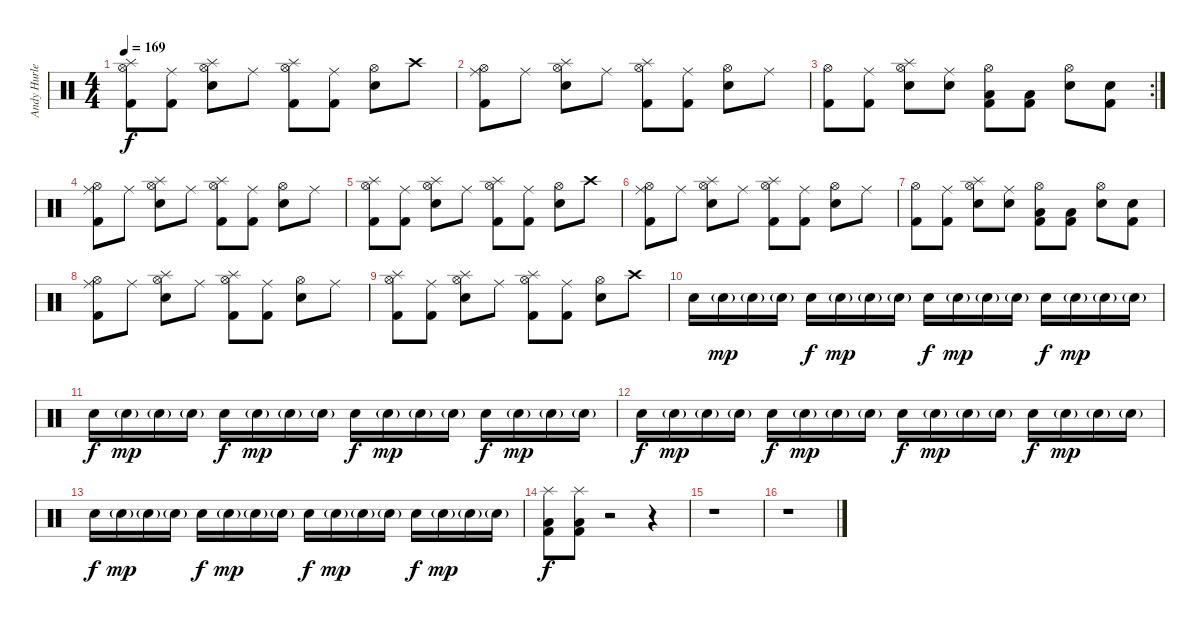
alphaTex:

\track ("Andy Hurley" "Andy Hurle") {instrument percussion}
\staff {score}
\articulation defaults
\ts (4 4)
\tempo 169
\clef neutral
\ks c
("Hi-Hat (open)" "Splash (hit)" "Kick (hit) 2").8{dy f} ("Ride (middle)" "Kick (hit) 2").8 ("Hi-Hat (open)" "Splash (hit)" "Electric Snare (hit)").8 "Ride (middle)".8 ("Hi-Hat (open)" "Splash (hit)" "Kick (hit) 2").8 ("Ride (middle)" "Kick (hit) 2").8 ("Hi-Hat (open)" "Electric Snare (hit)").8 "Crash high (hit)".8 |
("Hi-Hat (open)" "Ride (middle)" "Kick (hit) 2").8 "Ride (middle)".8 ("Hi-Hat (open)" "Splash (hit)" "Electric Snare (hit)").8 "Ride (middle)".8 ("Hi-Hat (open)" "Splash (hit)" "Kick (hit) 2").8 ("Ride (middle)" "Kick (hit) 2").8 ("Hi-Hat (open)" "Electric Snare (hit)").8 "Ride (middle)".8 |
\rc 2
("Hi-Hat (open)" "Kick (hit) 2").8 ("Ride (middle)" "Kick (hit) 2").8 ("Hi-Hat (open)" "Splash (hit)" "Electric Snare (hit)").8 ("Ride (middle)" "Electric Snare (hit)").8 ("Hi-Hat (open)" "Kick (hit) 2" "Low Floor Tom (hit)").8 ("Kick (hit) 2" "Low Floor Tom (hit)").8 ("Hi-Hat (open)" "Snare (hit) 2").8 ("Electric Snare (hit)" "Kick (hit) 2").8 |
("Hi-Hat (open)" "Ride (middle)" "Kick (hit) 2").8 "Ride (middle)".8 ("Hi-Hat (open)" "Splash (hit)" "Electric Snare (hit)").8 "Ride (middle)".8 ("Hi-Hat (open)" "Splash (hit)" "Kick (hit) 2").8 ("Ride (middle)" "Kick (hit) 2").8 ("Hi-Hat (open)" "Electric Snare (hit)").8 "Ride (middle)".8 |
("Hi-Hat (open)" "Splash (hit)" "Kick (hit) 2").8 ("Ride (middle)" "Kick (hit) 2").8 ("Hi-Hat (open)" "Splash (hit)" "Electric Snare (hit)").8 "Ride (middle)".8 ("Hi-Hat (open)" "Splash (hit)" "Kick (hit) 2").8 ("Ride (middle)" "Kick (hit) 2").8 ("Hi-Hat (open)" "Electric Snare (hit)").8 "Crash high (hit)".8 |
("Hi-Hat (open)" "Ride (middle)" "Kick (hit) 2").8 "Ride (middle)".8 ("Hi-Hat (open)" "Splash (hit)" "Electric Snare (hit)").8 "Ride (middle)".8 ("Hi-Hat (open)" "Splash (hit)" "Kick (hit) 2").8 ("Ride (middle)" "Kick (hit) 2").8 ("Hi-Hat (open)" "Electric Snare (hit)").8 "Ride (middle)".8 |
("Hi-Hat (open)" "Kick (hit) 2").8 ("Ride (middle)" "Kick (hit) 2").8 ("Hi-Hat (open)" "Splash (hit)" "Electric Snare (hit)").8 ("Ride (middle)" "Electric Snare (hit)").8 ("Hi-Hat (open)" "Kick (hit) 2" "Low Floor Tom (hit)").8 ("Kick (hit) 2" "Low Floor Tom (hit)").8 ("Hi-Hat (open)" "Snare (hit) 2").8 ("Electric Snare (hit)" "Kick (hit) 2").8 |
("Hi-Hat (open)" "Ride (middle)" "Kick (hit) 2").8 "Ride (middle)".8 ("Hi-Hat (open)" "Splash (hit)" "Electric Snare (hit)").8 "Ride (middle)".8 ("Hi-Hat (open)" "Splash (hit)" "Kick (hit) 2").8 ("Ride (middle)" "Kick (hit) 2").8 ("Hi-Hat (open)" "Electric Snare (hit)").8 "Ride (middle)".8 |
("Hi-Hat (open)" "Splash (hit)" "Kick (hit) 2").8 ("Ride (middle)" "Kick (hit) 2").8 ("Hi-Hat (open)" "Splash (hit)" "Electric Snare (hit)").8 "Ride (middle)".8 ("Hi-Hat (open)" "Splash (hit)" "Kick (hit) 2").8 ("Ride (middle)" "Kick (hit) 2").8 ("Hi-Hat (open)" "Electric Snare (hit)").8 "Crash high (hit)".8 |
"Electric Snare (hit)".16 "Electric Snare (hit)"{g}.16{dy mp} "Electric Snare (hit)"{g}.16 "Electric Snare (hit)"{g}.16 "Electric Snare (hit)".16{dy f} "Electric Snare (hit)"{g}.16{dy mp} "Electric Snare (hit)"{g}.16 "Electric Snare (hit)"{g}.16 "Electric Snare (hit)".16{dy f} "Electric Snare (hit)"{g}.16{dy mp} "Electric Snare (hit)"{g}.16 "Electric Snare (hit)"{g}.16 "Electric Snare (hit)".16{dy f} "Electric Snare (hit)"{g}.16{dy mp} "Electric Snare (hit)"{g}.16 "Electric Snare (hit)"{g}.16 |
"Electric Snare (hit)".16{dy f} "Electric Snare (hit)"{g}.16{dy mp} "Electric Snare (hit)"{g}.16 "Electric Snare (hit)"{g}.16 "Electric Snare (hit)".16{dy f} "Electric Snare (hit)"{g}.16{dy mp} "Electric Snare (hit)"{g}.16 "Electric Snare (hit)"{g}.16 "Electric Snare (hit)".16{dy f} "Electric Snare (hit)"{g}.16{dy mp} "Electric Snare (hit)"{g}.16 "Electric Snare (hit)"{g}.16 "Electric Snare (hit)".16{dy f} "Electric Snare (hit)"{g}.16{dy mp} "Electric Snare (hit)"{g}.16 "Electric Snare (hit)"{g}.16 |
"Electric Snare (hit)".16{dy f} "Electric Snare (hit)"{g}.16{dy mp} "Electric Snare (hit)"{g}.16 "Electric Snare (hit)"{g}.16 "Electric Snare (hit)".16{dy f} "Electric Snare (hit)"{g}.16{dy mp} "Electric Snare (hit)"{g}.16 "Electric Snare (hit)"{g}.16 "Electric Snare (hit)".16{dy f} "Electric Snare (hit)"{g}.16{dy mp} "Electric Snare (hit)"{g}.16 "Electric Snare (hit)"{g}.16 "Electric Snare (hit)".16{dy f} "Electric Snare (hit)"{g}.16{dy mp} "Electric Snare (hit)"{g}.16 "Electric Snare (hit)"{g}.16 |
"Electric Snare (hit)".16{dy f} "Electric Snare (hit)"{g}.16{dy mp} "Electric Snare (hit)"{g}.16 "Electric Snare (hit)"{g}.16 "Electric Snare (hit)".16{dy f} "Electric Snare (hit)"{g}.16{dy mp} "Electric Snare (hit)"{g}.16 "Electric Snare (hit)"{g}.16 "Electric Snare (hit)".16{dy f} "Electric Snare (hit)"{g}.16{dy mp} "Electric Snare (hit)"{g}.16 "Electric Snare (hit)"{g}.16 "Electric Snare (hit)".16{dy f} "Electric Snare (hit)"{g}.16{dy mp} "Electric Snare (hit)"{g}.16 "Electric Snare (hit)"{g}.16 |
("Splash (hit)" "Kick (hit) 2" "Low Floor Tom (hit)").8{dy f} ("Splash (hit)" "Kick (hit) 2" "Low Floor Tom (hit)").8 r.2 r.4 |
r.1 |
r.1
